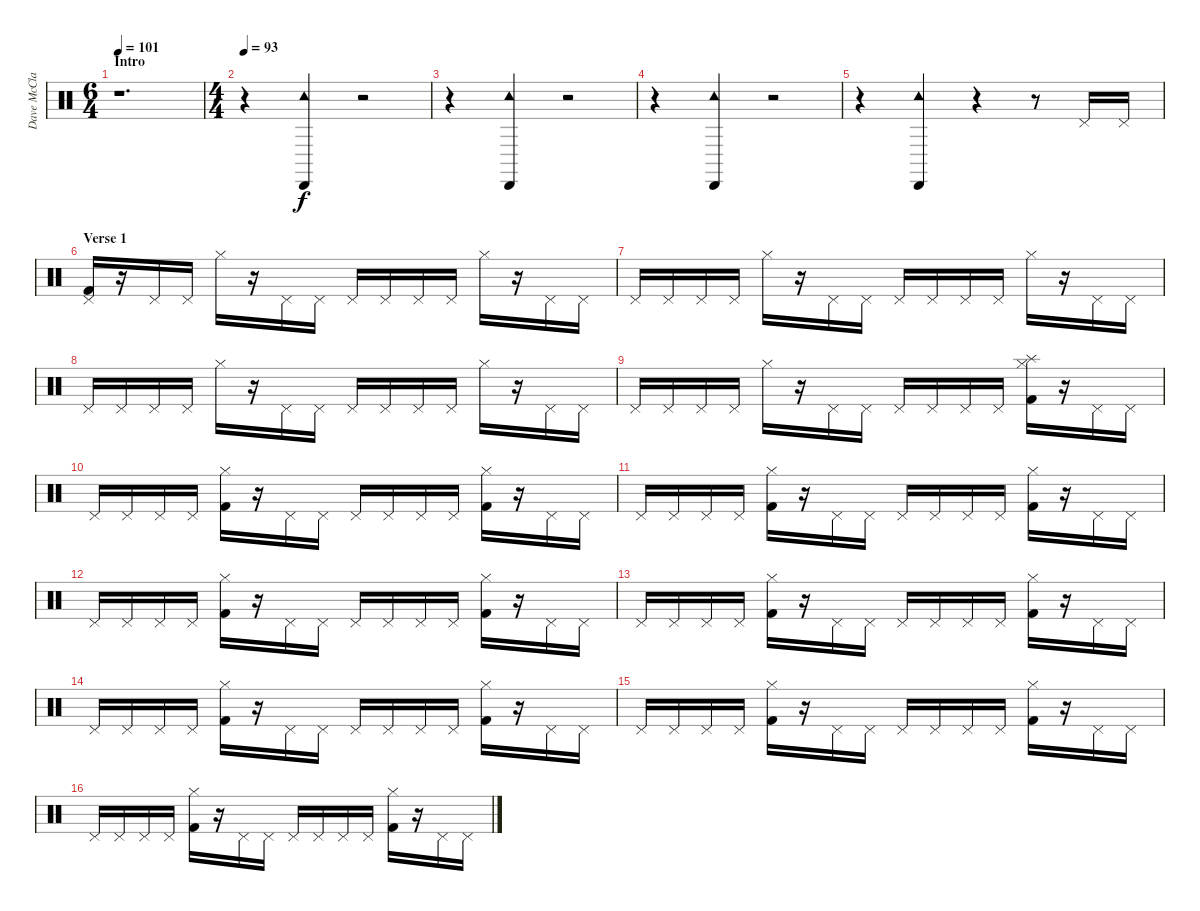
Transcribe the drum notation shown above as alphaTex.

\track ("Dave McClain" "Dave McCla") {instrument percussion}
\staff {score}
\articulation defaults
\ts (6 4)
\section ("" "Intro")
\tempo 101
\clef neutral
\ks c
r.1{d dy f} |
\ts (4 4)
\tempo 93
r.4 ("Cabasa (hit)" "Tambourine (hit)").4 r.2 |
r.4 ("Cabasa (hit)" "Tambourine (hit)").4 r.2 |
r.4 ("Cabasa (hit)" "Tambourine (hit)").4 r.2 |
r.4 ("Cabasa (hit)" "Tambourine (hit)").4 r.4 r.8 "Pedal Hi-Hat (hit)".16 "Pedal Hi-Hat (hit)".16 |
\section ("" "Verse 1")
("Pedal Hi-Hat (hit)" "Kick (hit) 2").16 r.16 "Pedal Hi-Hat (hit)".16 "Pedal Hi-Hat (hit)".16 "Hi-Hat (closed)".16 r.16 "Pedal Hi-Hat (hit)".16 "Pedal Hi-Hat (hit)".16 "Pedal Hi-Hat (hit)".16 "Pedal Hi-Hat (hit)".16 "Pedal Hi-Hat (hit)".16 "Pedal Hi-Hat (hit)".16 "Hi-Hat (closed)".16 r.16 "Pedal Hi-Hat (hit)".16 "Pedal Hi-Hat (hit)".16 |
"Pedal Hi-Hat (hit)".16 "Pedal Hi-Hat (hit)".16 "Pedal Hi-Hat (hit)".16 "Pedal Hi-Hat (hit)".16 "Hi-Hat (closed)".16 r.16 "Pedal Hi-Hat (hit)".16 "Pedal Hi-Hat (hit)".16 "Pedal Hi-Hat (hit)".16 "Pedal Hi-Hat (hit)".16 "Pedal Hi-Hat (hit)".16 "Pedal Hi-Hat (hit)".16 "Hi-Hat (closed)".16 r.16 "Pedal Hi-Hat (hit)".16 "Pedal Hi-Hat (hit)".16 |
"Pedal Hi-Hat (hit)".16 "Pedal Hi-Hat (hit)".16 "Pedal Hi-Hat (hit)".16 "Pedal Hi-Hat (hit)".16 "Hi-Hat (closed)".16 r.16 "Pedal Hi-Hat (hit)".16 "Pedal Hi-Hat (hit)".16 "Pedal Hi-Hat (hit)".16 "Pedal Hi-Hat (hit)".16 "Pedal Hi-Hat (hit)".16 "Pedal Hi-Hat (hit)".16 "Hi-Hat (closed)".16 r.16 "Pedal Hi-Hat (hit)".16 "Pedal Hi-Hat (hit)".16 |
"Pedal Hi-Hat (hit)".16 "Pedal Hi-Hat (hit)".16 "Pedal Hi-Hat (hit)".16 "Pedal Hi-Hat (hit)".16 "Hi-Hat (closed)".16 r.16 "Pedal Hi-Hat (hit)".16 "Pedal Hi-Hat (hit)".16 "Pedal Hi-Hat (hit)".16 "Pedal Hi-Hat (hit)".16 "Pedal Hi-Hat (hit)".16 "Pedal Hi-Hat (hit)".16 ("Splash (hit)" "Hi-Hat (closed)" "Kick (hit) 2").16 r.16 "Pedal Hi-Hat (hit)".16 "Pedal Hi-Hat (hit)".16 |
"Pedal Hi-Hat (hit)".16 "Pedal Hi-Hat (hit)".16 "Pedal Hi-Hat (hit)".16 "Pedal Hi-Hat (hit)".16 ("Hi-Hat (closed)" "Kick (hit) 2").16 r.16 "Pedal Hi-Hat (hit)".16 "Pedal Hi-Hat (hit)".16 "Pedal Hi-Hat (hit)".16 "Pedal Hi-Hat (hit)".16 "Pedal Hi-Hat (hit)".16 "Pedal Hi-Hat (hit)".16 ("Hi-Hat (closed)" "Kick (hit) 2").16 r.16 "Pedal Hi-Hat (hit)".16 "Pedal Hi-Hat (hit)".16 |
"Pedal Hi-Hat (hit)".16 "Pedal Hi-Hat (hit)".16 "Pedal Hi-Hat (hit)".16 "Pedal Hi-Hat (hit)".16 ("Hi-Hat (closed)" "Kick (hit) 2").16 r.16 "Pedal Hi-Hat (hit)".16 "Pedal Hi-Hat (hit)".16 "Pedal Hi-Hat (hit)".16 "Pedal Hi-Hat (hit)".16 "Pedal Hi-Hat (hit)".16 "Pedal Hi-Hat (hit)".16 ("Hi-Hat (closed)" "Kick (hit) 2").16 r.16 "Pedal Hi-Hat (hit)".16 "Pedal Hi-Hat (hit)".16 |
"Pedal Hi-Hat (hit)".16 "Pedal Hi-Hat (hit)".16 "Pedal Hi-Hat (hit)".16 "Pedal Hi-Hat (hit)".16 ("Hi-Hat (closed)" "Kick (hit) 2").16 r.16 "Pedal Hi-Hat (hit)".16 "Pedal Hi-Hat (hit)".16 "Pedal Hi-Hat (hit)".16 "Pedal Hi-Hat (hit)".16 "Pedal Hi-Hat (hit)".16 "Pedal Hi-Hat (hit)".16 ("Hi-Hat (closed)" "Kick (hit) 2").16 r.16 "Pedal Hi-Hat (hit)".16 "Pedal Hi-Hat (hit)".16 |
"Pedal Hi-Hat (hit)".16 "Pedal Hi-Hat (hit)".16 "Pedal Hi-Hat (hit)".16 "Pedal Hi-Hat (hit)".16 ("Hi-Hat (closed)" "Kick (hit) 2").16 r.16 "Pedal Hi-Hat (hit)".16 "Pedal Hi-Hat (hit)".16 "Pedal Hi-Hat (hit)".16 "Pedal Hi-Hat (hit)".16 "Pedal Hi-Hat (hit)".16 "Pedal Hi-Hat (hit)".16 ("Hi-Hat (closed)" "Kick (hit) 2").16 r.16 "Pedal Hi-Hat (hit)".16 "Pedal Hi-Hat (hit)".16 |
"Pedal Hi-Hat (hit)".16 "Pedal Hi-Hat (hit)".16 "Pedal Hi-Hat (hit)".16 "Pedal Hi-Hat (hit)".16 ("Hi-Hat (closed)" "Kick (hit) 2").16 r.16 "Pedal Hi-Hat (hit)".16 "Pedal Hi-Hat (hit)".16 "Pedal Hi-Hat (hit)".16 "Pedal Hi-Hat (hit)".16 "Pedal Hi-Hat (hit)".16 "Pedal Hi-Hat (hit)".16 ("Hi-Hat (closed)" "Kick (hit) 2").16 r.16 "Pedal Hi-Hat (hit)".16 "Pedal Hi-Hat (hit)".16 |
"Pedal Hi-Hat (hit)".16 "Pedal Hi-Hat (hit)".16 "Pedal Hi-Hat (hit)".16 "Pedal Hi-Hat (hit)".16 ("Hi-Hat (closed)" "Kick (hit) 2").16 r.16 "Pedal Hi-Hat (hit)".16 "Pedal Hi-Hat (hit)".16 "Pedal Hi-Hat (hit)".16 "Pedal Hi-Hat (hit)".16 "Pedal Hi-Hat (hit)".16 "Pedal Hi-Hat (hit)".16 ("Hi-Hat (closed)" "Kick (hit) 2").16 r.16 "Pedal Hi-Hat (hit)".16 "Pedal Hi-Hat (hit)".16 |
"Pedal Hi-Hat (hit)".16 "Pedal Hi-Hat (hit)".16 "Pedal Hi-Hat (hit)".16 "Pedal Hi-Hat (hit)".16 ("Hi-Hat (closed)" "Kick (hit) 2").16 r.16 "Pedal Hi-Hat (hit)".16 "Pedal Hi-Hat (hit)".16 "Pedal Hi-Hat (hit)".16 "Pedal Hi-Hat (hit)".16 "Pedal Hi-Hat (hit)".16 "Pedal Hi-Hat (hit)".16 ("Hi-Hat (closed)" "Kick (hit) 2").16 r.16 "Pedal Hi-Hat (hit)".16 "Pedal Hi-Hat (hit)".16
